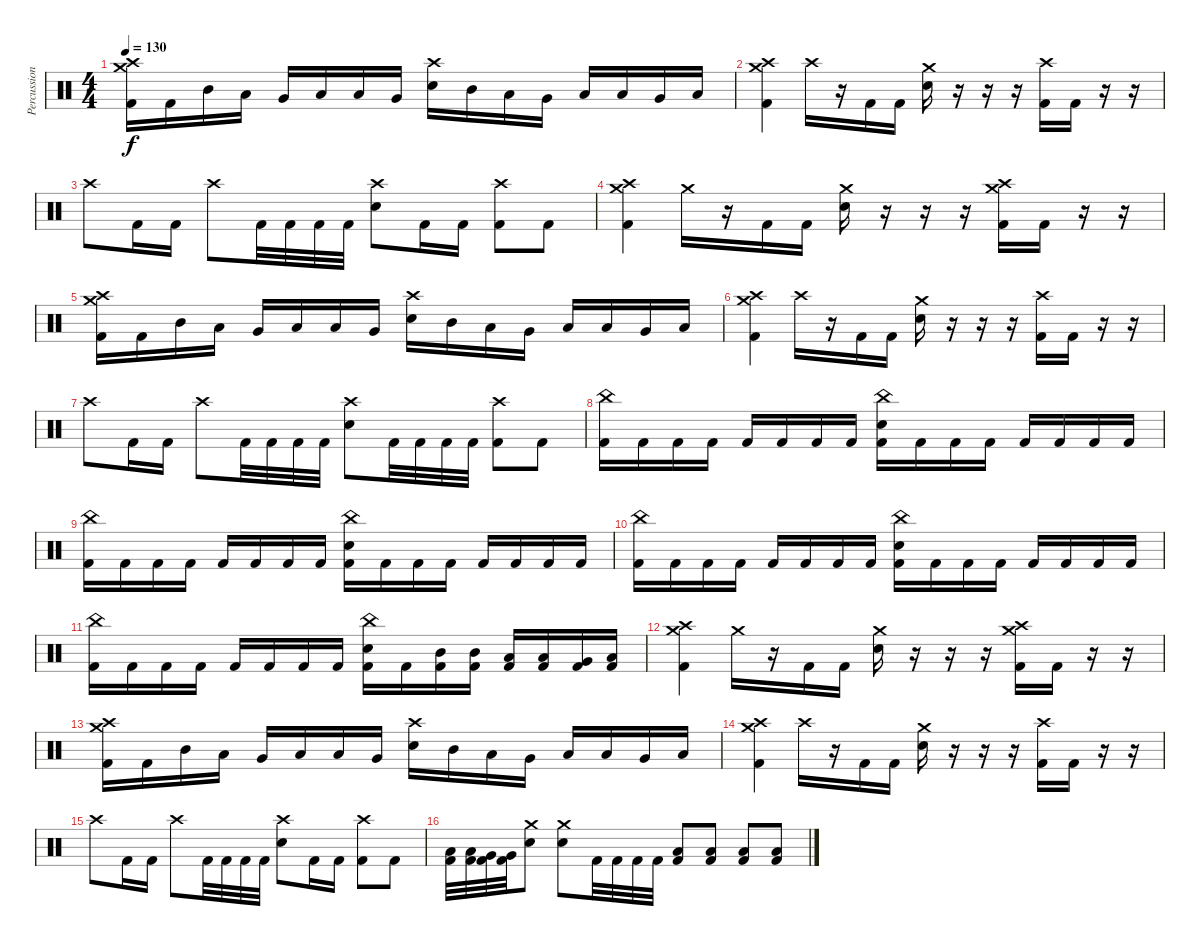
\track ("Percussion" "Percussion") {instrument percussion}
\staff {score}
\articulation defaults
\ts (4 4)
\tempo 130
\clef neutral
\ks c
("Crash medium (hit)" "Crash high (hit)" "Kick (hit) 2").16{dy f} "Kick (hit) 2".16 "Mid Tom (hit)".16 "Low Tom (hit)".16 "Very Low Tom (hit)".16 "Low Floor Tom (hit)".16 "Low Tom (hit)".16 "Very Low Tom (hit)".16 ("Crash high (hit)" "Electric Snare (hit)").16 "Mid Tom (hit)".16 "Low Tom (hit)".16 "Very Low Tom (hit)".16 "Low Floor Tom (hit)".16 "Low Tom (hit)".16 "Very Low Tom (hit)".16 "Low Floor Tom (hit)".16 |
("Crash medium (hit)" "Crash high (hit)" "Kick (hit) 2").4 "Crash high (hit)".16 r.16 "Kick (hit) 2".16 "Kick (hit) 2".16 ("Crash medium (hit)" "Electric Snare (hit)").16 r.16 r.16 r.16 ("Crash high (hit)" "Kick (hit) 2").16 "Kick (hit) 2".16 r.16 r.16 |
"Crash high (hit)".8 "Kick (hit) 2".16 "Kick (hit) 2".16 "Crash high (hit)".8 "Kick (hit) 2".32 "Kick (hit) 2".32 "Kick (hit) 2".32 "Kick (hit) 2".32 ("Crash high (hit)" "Electric Snare (hit)").8 "Kick (hit) 2".16 "Kick (hit) 2".16 ("Crash high (hit)" "Kick (hit) 2").8 "Kick (hit) 2".8 |
("Crash medium (hit)" "Crash high (hit)" "Kick (hit) 2").4 "Crash medium (hit)".16 r.16 "Kick (hit) 2".16 "Kick (hit) 2".16 ("Crash medium (hit)" "Electric Snare (hit)").16 r.16 r.16 r.16 ("Crash medium (hit)" "Crash high (hit)" "Kick (hit) 2").16 "Kick (hit) 2".16 r.16 r.16 |
("Crash medium (hit)" "Crash high (hit)" "Kick (hit) 2").16 "Kick (hit) 2".16 "Mid Tom (hit)".16 "Low Tom (hit)".16 "Very Low Tom (hit)".16 "Low Floor Tom (hit)".16 "Low Tom (hit)".16 "Very Low Tom (hit)".16 ("Crash high (hit)" "Electric Snare (hit)").16 "Mid Tom (hit)".16 "Low Tom (hit)".16 "Very Low Tom (hit)".16 "Low Floor Tom (hit)".16 "Low Tom (hit)".16 "Very Low Tom (hit)".16 "Low Floor Tom (hit)".16 |
("Crash medium (hit)" "Crash high (hit)" "Kick (hit) 2").4 "Crash high (hit)".16 r.16 "Kick (hit) 2".16 "Kick (hit) 2".16 ("Crash medium (hit)" "Electric Snare (hit)").16 r.16 r.16 r.16 ("Crash high (hit)" "Kick (hit) 2").16 "Kick (hit) 2".16 r.16 r.16 |
"Crash high (hit)".8 "Kick (hit) 2".16 "Kick (hit) 2".16 "Crash high (hit)".8 "Kick (hit) 2".32 "Kick (hit) 2".32 "Kick (hit) 2".32 "Kick (hit) 2".32 ("Crash high (hit)" "Electric Snare (hit)").8 "Kick (hit) 2".32 "Kick (hit) 2".32 "Kick (hit) 2".32 "Kick (hit) 2".32 ("Crash high (hit)" "Kick (hit) 2").8 "Kick (hit) 2".8 |
("China (hit)" "Kick (hit) 2").16 "Kick (hit) 2".16 "Kick (hit) 2".16 "Kick (hit) 2".16 "Kick (hit) 2".16 "Kick (hit) 2".16 "Kick (hit) 2".16 "Kick (hit) 2".16 ("China (hit)" "Electric Snare (hit)" "Kick (hit) 2").16 "Kick (hit) 2".16 "Kick (hit) 2".16 "Kick (hit) 2".16 "Kick (hit) 2".16 "Kick (hit) 2".16 "Kick (hit) 2".16 "Kick (hit) 2".16 |
("China (hit)" "Kick (hit) 2").16 "Kick (hit) 2".16 "Kick (hit) 2".16 "Kick (hit) 2".16 "Kick (hit) 2".16 "Kick (hit) 2".16 "Kick (hit) 2".16 "Kick (hit) 2".16 ("China (hit)" "Electric Snare (hit)" "Kick (hit) 2").16 "Kick (hit) 2".16 "Kick (hit) 2".16 "Kick (hit) 2".16 "Kick (hit) 2".16 "Kick (hit) 2".16 "Kick (hit) 2".16 "Kick (hit) 2".16 |
("China (hit)" "Kick (hit) 2").16 "Kick (hit) 2".16 "Kick (hit) 2".16 "Kick (hit) 2".16 "Kick (hit) 2".16 "Kick (hit) 2".16 "Kick (hit) 2".16 "Kick (hit) 2".16 ("China (hit)" "Electric Snare (hit)" "Kick (hit) 2").16 "Kick (hit) 2".16 "Kick (hit) 2".16 "Kick (hit) 2".16 "Kick (hit) 2".16 "Kick (hit) 2".16 "Kick (hit) 2".16 "Kick (hit) 2".16 |
("China (hit)" "Kick (hit) 2").16 "Kick (hit) 2".16 "Kick (hit) 2".16 "Kick (hit) 2".16 "Kick (hit) 2".16 "Kick (hit) 2".16 "Kick (hit) 2".16 "Kick (hit) 2".16 ("China (hit)" "Electric Snare (hit)" "Kick (hit) 2").16 "Kick (hit) 2".16 ("Mid Tom (hit)" "Kick (hit) 2").16 ("Mid Tom (hit)" "Kick (hit) 2").16 ("Low Tom (hit)" "Kick (hit) 2").16 ("Low Tom (hit)" "Kick (hit) 2").16 ("Very Low Tom (hit)" "Kick (hit) 2").16 ("Low Floor Tom (hit)" "Kick (hit) 2").16 |
("Crash medium (hit)" "Crash high (hit)" "Kick (hit) 2").4 "Crash medium (hit)".16 r.16 "Kick (hit) 2".16 "Kick (hit) 2".16 ("Crash medium (hit)" "Electric Snare (hit)").16 r.16 r.16 r.16 ("Crash medium (hit)" "Crash high (hit)" "Kick (hit) 2").16 "Kick (hit) 2".16 r.16 r.16 |
("Crash medium (hit)" "Crash high (hit)" "Kick (hit) 2").16 "Kick (hit) 2".16 "Mid Tom (hit)".16 "Low Tom (hit)".16 "Very Low Tom (hit)".16 "Low Floor Tom (hit)".16 "Low Tom (hit)".16 "Very Low Tom (hit)".16 ("Crash high (hit)" "Electric Snare (hit)").16 "Mid Tom (hit)".16 "Low Tom (hit)".16 "Very Low Tom (hit)".16 "Low Floor Tom (hit)".16 "Low Tom (hit)".16 "Very Low Tom (hit)".16 "Low Floor Tom (hit)".16 |
("Crash medium (hit)" "Crash high (hit)" "Kick (hit) 2").4 "Crash high (hit)".16 r.16 "Kick (hit) 2".16 "Kick (hit) 2".16 ("Crash medium (hit)" "Electric Snare (hit)").16 r.16 r.16 r.16 ("Crash high (hit)" "Kick (hit) 2").16 "Kick (hit) 2".16 r.16 r.16 |
"Crash high (hit)".8 "Kick (hit) 2".16 "Kick (hit) 2".16 "Crash high (hit)".8 "Kick (hit) 2".32 "Kick (hit) 2".32 "Kick (hit) 2".32 "Kick (hit) 2".32 ("Crash high (hit)" "Electric Snare (hit)").8 "Kick (hit) 2".16 "Kick (hit) 2".16 ("Crash high (hit)" "Kick (hit) 2").8 "Kick (hit) 2".8 |
("Low Tom (hit)" "Kick (hit) 2").32 ("Low Tom (hit)" "Kick (hit) 2").32 ("Very Low Tom (hit)" "Kick (hit) 2").32 ("Very Low Tom (hit)" "Kick (hit) 2").32 ("Crash medium (hit)" "Electric Snare (hit)").8 ("Crash medium (hit)" "Electric Snare (hit)").8 "Kick (hit) 2".32 "Kick (hit) 2".32 "Kick (hit) 2".32 "Kick (hit) 2".32 ("Low Tom (hit)" "Kick (hit) 2").8 ("Low Tom (hit)" "Kick (hit) 2").8 ("Low Tom (hit)" "Kick (hit) 2").8 ("Low Tom (hit)" "Kick (hit) 2").8
